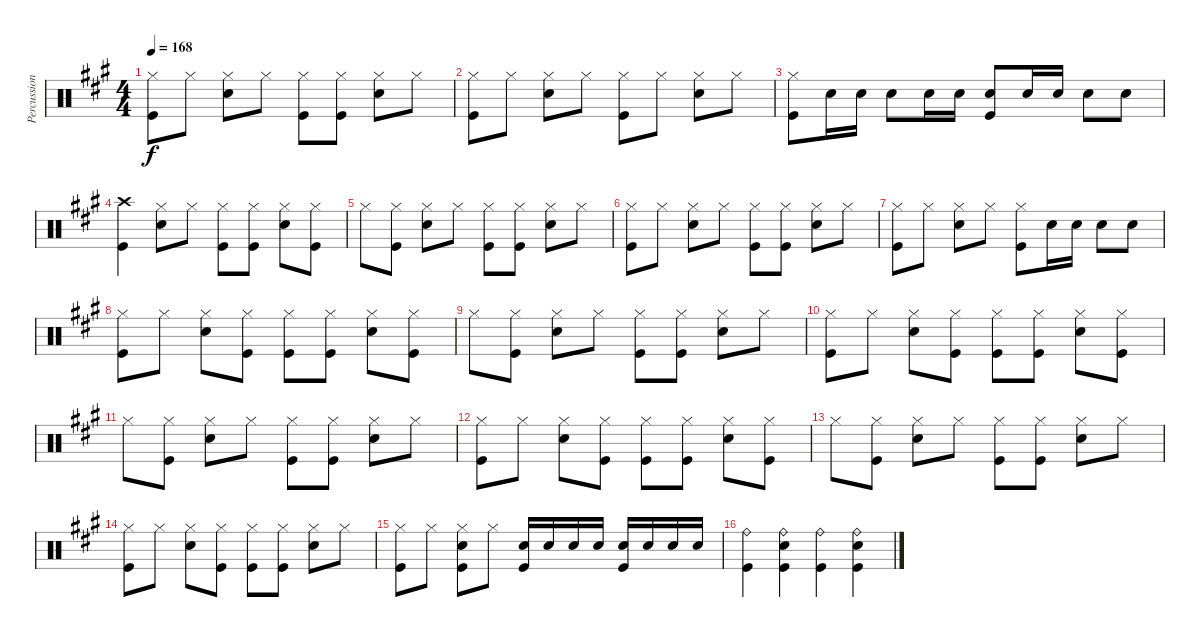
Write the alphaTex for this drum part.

\track ("Percussion" "Percussion") {instrument percussion}
\staff {score}
\articulation defaults
\ts (4 4)
\tempo 168
\clef neutral
\ks a
("Hi-Hat (closed)" "Kick (hit)").8{dy f} "Hi-Hat (closed)".8 ("Hi-Hat (closed)" "Snare (hit) 2").8 "Hi-Hat (closed)".8 ("Hi-Hat (closed)" "Kick (hit)").8 ("Hi-Hat (closed)" "Kick (hit)").8 ("Hi-Hat (closed)" "Snare (hit) 2").8 "Hi-Hat (closed)".8 |
("Hi-Hat (closed)" "Kick (hit)").8 "Hi-Hat (closed)".8 ("Hi-Hat (closed)" "Snare (hit) 2").8 "Hi-Hat (closed)".8 ("Hi-Hat (closed)" "Kick (hit)").8 "Hi-Hat (closed)".8 ("Hi-Hat (closed)" "Snare (hit) 2").8 "Hi-Hat (closed)".8 |
("Hi-Hat (closed)" "Kick (hit)").8 "Snare (hit) 2".16 "Snare (hit) 2".16 "Snare (hit) 2".8 "Snare (hit) 2".16 "Snare (hit) 2".16 ("Snare (hit) 2" "Kick (hit)").8 "Snare (hit) 2".16 "Snare (hit) 2".16 "Snare (hit) 2".8 "Snare (hit) 2".8 |
("Crash high (hit)" "Kick (hit)").4 ("Hi-Hat (closed)" "Snare (hit) 2").8 "Hi-Hat (closed)".8 ("Hi-Hat (closed)" "Kick (hit)").8 ("Hi-Hat (closed)" "Kick (hit)").8 ("Hi-Hat (closed)" "Snare (hit) 2").8 ("Hi-Hat (closed)" "Kick (hit)").8 |
"Hi-Hat (closed)".8 ("Hi-Hat (closed)" "Kick (hit)").8 ("Hi-Hat (closed)" "Snare (hit) 2").8 "Hi-Hat (closed)".8 ("Hi-Hat (closed)" "Kick (hit)").8 ("Hi-Hat (closed)" "Kick (hit)").8 ("Hi-Hat (closed)" "Snare (hit) 2").8 "Hi-Hat (closed)".8 |
("Hi-Hat (closed)" "Kick (hit)").8 "Hi-Hat (closed)".8 ("Hi-Hat (closed)" "Snare (hit) 2").8 "Hi-Hat (closed)".8 ("Hi-Hat (closed)" "Kick (hit)").8 ("Hi-Hat (closed)" "Kick (hit)").8 ("Hi-Hat (closed)" "Snare (hit) 2").8 "Hi-Hat (closed)".8 |
("Hi-Hat (closed)" "Kick (hit)").8 "Hi-Hat (closed)".8 ("Hi-Hat (closed)" "Snare (hit) 2").8 "Hi-Hat (closed)".8 ("Hi-Hat (closed)" "Kick (hit)").8 "Snare (hit) 2".16 "Snare (hit) 2".16 "Snare (hit) 2".8 "Snare (hit) 2".8 |
("Hi-Hat (closed)" "Kick (hit)").8 "Hi-Hat (closed)".8 ("Hi-Hat (closed)" "Snare (hit) 2").8 ("Hi-Hat (closed)" "Kick (hit)").8 ("Hi-Hat (closed)" "Kick (hit)").8 ("Hi-Hat (closed)" "Kick (hit)").8 ("Hi-Hat (closed)" "Snare (hit) 2").8 ("Hi-Hat (closed)" "Kick (hit)").8 |
"Hi-Hat (closed)".8 ("Hi-Hat (closed)" "Kick (hit)").8 ("Hi-Hat (closed)" "Snare (hit) 2").8 "Hi-Hat (closed)".8 ("Hi-Hat (closed)" "Kick (hit)").8 ("Hi-Hat (closed)" "Kick (hit)").8 ("Hi-Hat (closed)" "Snare (hit) 2").8 "Hi-Hat (closed)".8 |
("Hi-Hat (closed)" "Kick (hit)").8 "Hi-Hat (closed)".8 ("Hi-Hat (closed)" "Snare (hit) 2").8 ("Hi-Hat (closed)" "Kick (hit)").8 ("Hi-Hat (closed)" "Kick (hit)").8 ("Hi-Hat (closed)" "Kick (hit)").8 ("Hi-Hat (closed)" "Snare (hit) 2").8 ("Hi-Hat (closed)" "Kick (hit)").8 |
"Hi-Hat (closed)".8 ("Hi-Hat (closed)" "Kick (hit)").8 ("Hi-Hat (closed)" "Snare (hit) 2").8 "Hi-Hat (closed)".8 ("Hi-Hat (closed)" "Kick (hit)").8 ("Hi-Hat (closed)" "Kick (hit)").8 ("Hi-Hat (closed)" "Snare (hit) 2").8 "Hi-Hat (closed)".8 |
("Hi-Hat (closed)" "Kick (hit)").8 "Hi-Hat (closed)".8 ("Hi-Hat (closed)" "Snare (hit) 2").8 ("Hi-Hat (closed)" "Kick (hit)").8 ("Hi-Hat (closed)" "Kick (hit)").8 ("Hi-Hat (closed)" "Kick (hit)").8 ("Hi-Hat (closed)" "Snare (hit) 2").8 ("Hi-Hat (closed)" "Kick (hit)").8 |
"Hi-Hat (closed)".8 ("Hi-Hat (closed)" "Kick (hit)").8 ("Hi-Hat (closed)" "Snare (hit) 2").8 "Hi-Hat (closed)".8 ("Hi-Hat (closed)" "Kick (hit)").8 ("Hi-Hat (closed)" "Kick (hit)").8 ("Hi-Hat (closed)" "Snare (hit) 2").8 "Hi-Hat (closed)".8 |
("Hi-Hat (closed)" "Kick (hit)").8 "Hi-Hat (closed)".8 ("Hi-Hat (closed)" "Snare (hit) 2").8 ("Hi-Hat (closed)" "Kick (hit)").8 ("Hi-Hat (closed)" "Kick (hit)").8 ("Hi-Hat (closed)" "Kick (hit)").8 ("Hi-Hat (closed)" "Snare (hit) 2").8 "Hi-Hat (closed)".8 |
("Hi-Hat (closed)" "Kick (hit)").8 "Hi-Hat (closed)".8 ("Hi-Hat (closed)" "Snare (hit) 2" "Kick (hit)").8 "Hi-Hat (closed)".8 ("Snare (hit) 2" "Kick (hit)").16 "Snare (hit) 2".16 "Snare (hit) 2".16 "Snare (hit) 2".16 ("Snare (hit) 2" "Kick (hit)").16 "Snare (hit) 2".16 "Snare (hit) 2".16 "Snare (hit) 2".16 |
("Ride (bell)" "Kick (hit)").4 ("Ride (bell)" "Snare (hit) 2" "Kick (hit)").4 ("Ride (bell)" "Kick (hit)").4 ("Ride (bell)" "Snare (hit) 2" "Kick (hit)").4
